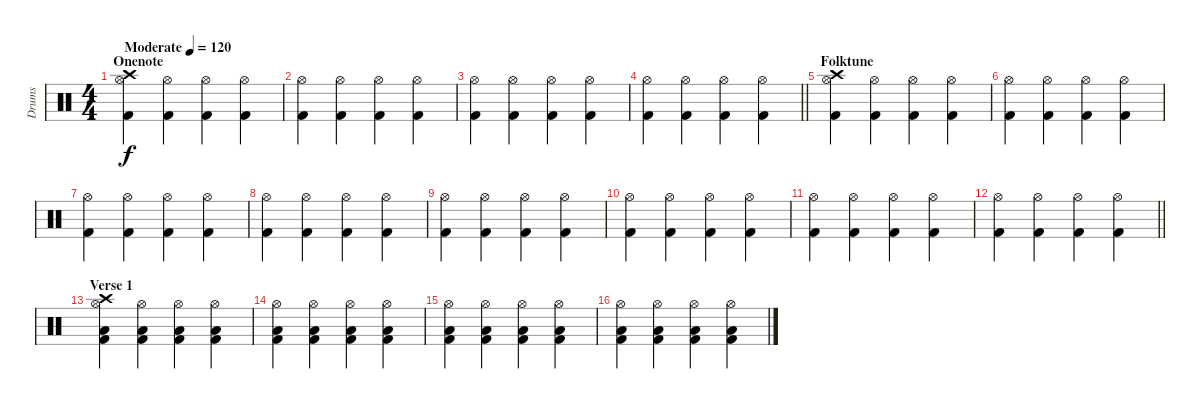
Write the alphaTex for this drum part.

\track ("Drums" "Drums") {instrument percussion}
\staff {score}
\articulation defaults
\ts (4 4)
\section ("" "Onenote")
\tempo (120 "Moderate")
\clef neutral
\ks c
("Crash high (hit)" "Hi-Hat (open)" "Kick (hit) 2").4{dy f} ("Hi-Hat (open)" "Kick (hit) 2").4 ("Hi-Hat (open)" "Kick (hit) 2").4 ("Hi-Hat (open)" "Kick (hit) 2").4 |
("Hi-Hat (open)" "Kick (hit) 2").4 ("Hi-Hat (open)" "Kick (hit) 2").4 ("Hi-Hat (open)" "Kick (hit) 2").4 ("Hi-Hat (open)" "Kick (hit) 2").4 |
("Hi-Hat (open)" "Kick (hit) 2").4 ("Hi-Hat (open)" "Kick (hit) 2").4 ("Hi-Hat (open)" "Kick (hit) 2").4 ("Hi-Hat (open)" "Kick (hit) 2").4 |
\barLineRight lightlight
("Hi-Hat (open)" "Kick (hit) 2").4 ("Hi-Hat (open)" "Kick (hit) 2").4 ("Hi-Hat (open)" "Kick (hit) 2").4 ("Hi-Hat (open)" "Kick (hit) 2").4 |
\section ("" "Folktune")
("Crash high (hit)" "Hi-Hat (open)" "Kick (hit) 2").4 ("Hi-Hat (open)" "Kick (hit) 2").4 ("Hi-Hat (open)" "Kick (hit) 2").4 ("Hi-Hat (open)" "Kick (hit) 2").4 |
("Hi-Hat (open)" "Kick (hit) 2").4 ("Hi-Hat (open)" "Kick (hit) 2").4 ("Hi-Hat (open)" "Kick (hit) 2").4 ("Hi-Hat (open)" "Kick (hit) 2").4 |
("Hi-Hat (open)" "Kick (hit) 2").4 ("Hi-Hat (open)" "Kick (hit) 2").4 ("Hi-Hat (open)" "Kick (hit) 2").4 ("Hi-Hat (open)" "Kick (hit) 2").4 |
("Hi-Hat (open)" "Kick (hit) 2").4 ("Hi-Hat (open)" "Kick (hit) 2").4 ("Hi-Hat (open)" "Kick (hit) 2").4 ("Hi-Hat (open)" "Kick (hit) 2").4 |
("Hi-Hat (open)" "Kick (hit) 2").4 ("Hi-Hat (open)" "Kick (hit) 2").4 ("Hi-Hat (open)" "Kick (hit) 2").4 ("Hi-Hat (open)" "Kick (hit) 2").4 |
("Hi-Hat (open)" "Kick (hit) 2").4 ("Hi-Hat (open)" "Kick (hit) 2").4 ("Hi-Hat (open)" "Kick (hit) 2").4 ("Hi-Hat (open)" "Kick (hit) 2").4 |
("Hi-Hat (open)" "Kick (hit) 2").4 ("Hi-Hat (open)" "Kick (hit) 2").4 ("Hi-Hat (open)" "Kick (hit) 2").4 ("Hi-Hat (open)" "Kick (hit) 2").4 |
\barLineRight lightlight
("Hi-Hat (open)" "Kick (hit) 2").4 ("Hi-Hat (open)" "Kick (hit) 2").4 ("Hi-Hat (open)" "Kick (hit) 2").4 ("Hi-Hat (open)" "Kick (hit) 2").4 |
\section ("" "Verse 1")
("Crash high (hit)" "Hi-Hat (open)" "Low Floor Tom (hit)" "Kick (hit) 2").4 ("Hi-Hat (open)" "Low Floor Tom (hit)" "Kick (hit) 2").4 ("Hi-Hat (open)" "Low Floor Tom (hit)" "Kick (hit) 2").4 ("Hi-Hat (open)" "Low Floor Tom (hit)" "Kick (hit) 2").4 |
("Hi-Hat (open)" "Low Floor Tom (hit)" "Kick (hit) 2").4 ("Hi-Hat (open)" "Low Floor Tom (hit)" "Kick (hit) 2").4 ("Hi-Hat (open)" "Low Floor Tom (hit)" "Kick (hit) 2").4 ("Hi-Hat (open)" "Low Floor Tom (hit)" "Kick (hit) 2").4 |
("Hi-Hat (open)" "Low Floor Tom (hit)" "Kick (hit) 2").4 ("Hi-Hat (open)" "Low Floor Tom (hit)" "Kick (hit) 2").4 ("Hi-Hat (open)" "Low Floor Tom (hit)" "Kick (hit) 2").4 ("Hi-Hat (open)" "Low Floor Tom (hit)" "Kick (hit) 2").4 |
("Hi-Hat (open)" "Low Floor Tom (hit)" "Kick (hit) 2").4 ("Hi-Hat (open)" "Low Floor Tom (hit)" "Kick (hit) 2").4 ("Hi-Hat (open)" "Low Floor Tom (hit)" "Kick (hit) 2").4 ("Hi-Hat (open)" "Low Floor Tom (hit)" "Kick (hit) 2").4
